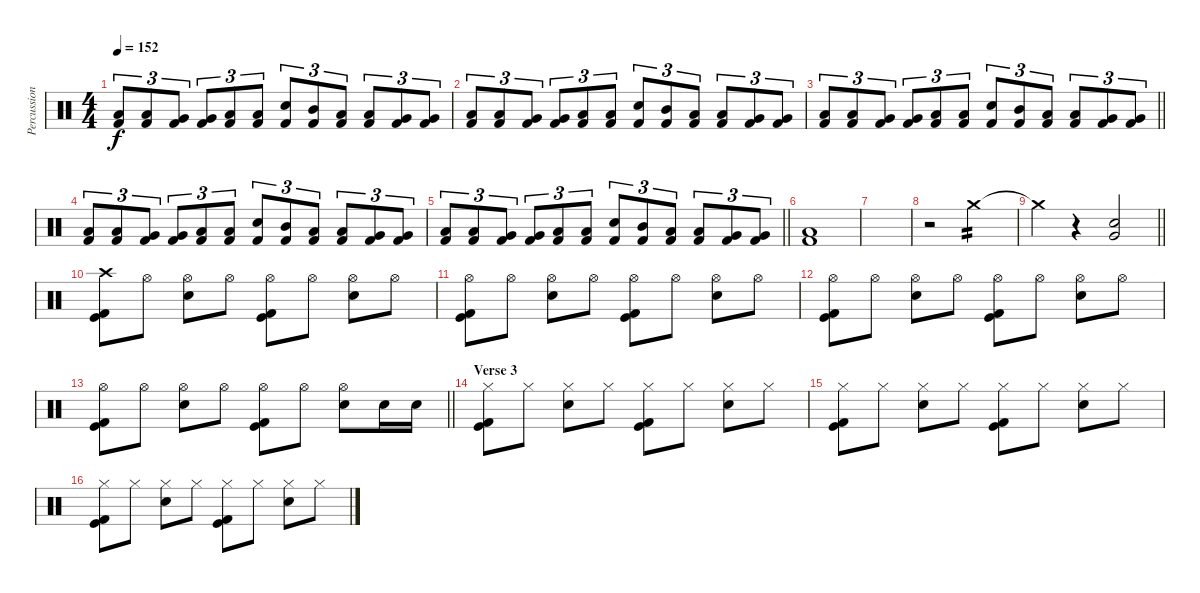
\track ("Percussion" "Percussion") {instrument percussion}
\staff {score}
\articulation defaults
\ts (4 4)
\tempo 152
\clef neutral
\ks c
("Kick (hit) 2" "Low Tom (hit)").8{tu (3 2) dy f} ("Kick (hit) 2" "Low Tom (hit)").8{tu (3 2)} ("Kick (hit) 2" "Very Low Tom (hit)").8{tu (3 2)} ("Kick (hit) 2" "Very Low Tom (hit)").8{tu (3 2)} ("Kick (hit) 2" "Low Floor Tom (hit)").8{tu (3 2)} ("Kick (hit) 2" "Low Floor Tom (hit)").8{tu (3 2)} ("Electric Snare (hit)" "Kick (hit) 2").8{tu (3 2)} ("Kick (hit) 2" "Mid Tom (hit)").8{tu (3 2)} ("Kick (hit) 2" "Low Tom (hit)").8{tu (3 2)} ("Kick (hit) 2" "Low Tom (hit)").8{tu (3 2)} ("Kick (hit) 2" "Very Low Tom (hit)").8{tu (3 2)} ("Kick (hit) 2" "Very Low Tom (hit)").8{tu (3 2)} |
("Kick (hit) 2" "Low Tom (hit)").8{tu (3 2)} ("Kick (hit) 2" "Low Tom (hit)").8{tu (3 2)} ("Kick (hit) 2" "Very Low Tom (hit)").8{tu (3 2)} ("Kick (hit) 2" "Very Low Tom (hit)").8{tu (3 2)} ("Kick (hit) 2" "Low Floor Tom (hit)").8{tu (3 2)} ("Kick (hit) 2" "Low Floor Tom (hit)").8{tu (3 2)} ("Electric Snare (hit)" "Kick (hit) 2").8{tu (3 2)} ("Kick (hit) 2" "Mid Tom (hit)").8{tu (3 2)} ("Kick (hit) 2" "Low Tom (hit)").8{tu (3 2)} ("Kick (hit) 2" "Low Tom (hit)").8{tu (3 2)} ("Kick (hit) 2" "Very Low Tom (hit)").8{tu (3 2)} ("Kick (hit) 2" "Very Low Tom (hit)").8{tu (3 2)} |
\barLineRight lightlight
("Kick (hit) 2" "Low Tom (hit)").8{tu (3 2)} ("Kick (hit) 2" "Low Tom (hit)").8{tu (3 2)} ("Kick (hit) 2" "Very Low Tom (hit)").8{tu (3 2)} ("Kick (hit) 2" "Very Low Tom (hit)").8{tu (3 2)} ("Kick (hit) 2" "Low Floor Tom (hit)").8{tu (3 2)} ("Kick (hit) 2" "Low Floor Tom (hit)").8{tu (3 2)} ("Electric Snare (hit)" "Kick (hit) 2").8{tu (3 2)} ("Kick (hit) 2" "Mid Tom (hit)").8{tu (3 2)} ("Kick (hit) 2" "Low Tom (hit)").8{tu (3 2)} ("Kick (hit) 2" "Low Tom (hit)").8{tu (3 2)} ("Kick (hit) 2" "Very Low Tom (hit)").8{tu (3 2)} ("Kick (hit) 2" "Very Low Tom (hit)").8{tu (3 2)} |
\section ("" "")
("Kick (hit) 2" "Low Tom (hit)").8{tu (3 2)} ("Kick (hit) 2" "Low Tom (hit)").8{tu (3 2)} ("Kick (hit) 2" "Very Low Tom (hit)").8{tu (3 2)} ("Kick (hit) 2" "Very Low Tom (hit)").8{tu (3 2)} ("Kick (hit) 2" "Low Floor Tom (hit)").8{tu (3 2)} ("Kick (hit) 2" "Low Floor Tom (hit)").8{tu (3 2)} ("Electric Snare (hit)" "Kick (hit) 2").8{tu (3 2)} ("Kick (hit) 2" "Mid Tom (hit)").8{tu (3 2)} ("Kick (hit) 2" "Low Tom (hit)").8{tu (3 2)} ("Kick (hit) 2" "Low Tom (hit)").8{tu (3 2)} ("Kick (hit) 2" "Very Low Tom (hit)").8{tu (3 2)} ("Kick (hit) 2" "Very Low Tom (hit)").8{tu (3 2)} |
\barLineRight lightlight
("Kick (hit) 2" "Low Tom (hit)").8{tu (3 2)} ("Kick (hit) 2" "Low Tom (hit)").8{tu (3 2)} ("Kick (hit) 2" "Very Low Tom (hit)").8{tu (3 2)} ("Kick (hit) 2" "Very Low Tom (hit)").8{tu (3 2)} ("Kick (hit) 2" "Low Floor Tom (hit)").8{tu (3 2)} ("Kick (hit) 2" "Low Floor Tom (hit)").8{tu (3 2)} ("Electric Snare (hit)" "Kick (hit) 2").8{tu (3 2)} ("Kick (hit) 2" "Mid Tom (hit)").8{tu (3 2)} ("Kick (hit) 2" "Low Tom (hit)").8{tu (3 2)} ("Kick (hit) 2" "Low Tom (hit)").8{tu (3 2)} ("Kick (hit) 2" "Very Low Tom (hit)").8{tu (3 2)} ("Kick (hit) 2" "Very Low Tom (hit)").8{tu (3 2)} |
\section ("" "")
("Kick (hit) 2" "Low Floor Tom (hit)").1 |
|
r.2{volume 0} "Crash medium (hit)".2{tp 2 volume 16} |
\barLineRight lightlight "Crash medium (hit)"{t}.4
r.4 ("Electric Snare (hit)" "Very Low Tom (hit)").2 |
\section ("" "")
("Crash high (hit)" "Kick (hit)" "Kick (hit) 2").8 "Hi-Hat (open)".8 ("Hi-Hat (open)" "Electric Snare (hit)").8 "Hi-Hat (open)".8 ("Hi-Hat (open)" "Kick (hit)" "Kick (hit) 2").8 "Hi-Hat (open)".8 ("Hi-Hat (open)" "Electric Snare (hit)").8 "Hi-Hat (open)".8 |
("Hi-Hat (open)" "Kick (hit)" "Kick (hit) 2").8 "Hi-Hat (open)".8 ("Hi-Hat (open)" "Electric Snare (hit)").8 "Hi-Hat (open)".8 ("Hi-Hat (open)" "Kick (hit)" "Kick (hit) 2").8 "Hi-Hat (open)".8 ("Hi-Hat (open)" "Electric Snare (hit)").8 "Hi-Hat (open)".8 |
("Hi-Hat (open)" "Kick (hit)" "Kick (hit) 2").8 "Hi-Hat (open)".8 ("Hi-Hat (open)" "Electric Snare (hit)").8 "Hi-Hat (open)".8 ("Hi-Hat (open)" "Kick (hit)" "Kick (hit) 2").8 "Hi-Hat (open)".8 ("Hi-Hat (open)" "Electric Snare (hit)").8 "Hi-Hat (open)".8 |
\barLineRight lightlight
("Hi-Hat (open)" "Kick (hit)" "Kick (hit) 2").8 "Hi-Hat (open)".8 ("Hi-Hat (open)" "Electric Snare (hit)").8 "Hi-Hat (open)".8 ("Hi-Hat (open)" "Kick (hit)" "Kick (hit) 2").8 "Hi-Hat (open)".8 ("Hi-Hat (open)" "Electric Snare (hit)").8 "Electric Snare (hit)".16 "Electric Snare (hit)".16 |
\section ("" "Verse 3")
("Hi-Hat (closed)" "Kick (hit)" "Kick (hit) 2").8 "Hi-Hat (closed)".8 ("Hi-Hat (closed)" "Electric Snare (hit)").8 "Hi-Hat (closed)".8 ("Hi-Hat (closed)" "Kick (hit)" "Kick (hit) 2").8 "Hi-Hat (closed)".8 ("Hi-Hat (closed)" "Electric Snare (hit)").8 "Hi-Hat (closed)".8 |
("Hi-Hat (closed)" "Kick (hit)" "Kick (hit) 2").8 "Hi-Hat (closed)".8 ("Hi-Hat (closed)" "Electric Snare (hit)").8 "Hi-Hat (closed)".8 ("Hi-Hat (closed)" "Kick (hit)" "Kick (hit) 2").8 "Hi-Hat (closed)".8 ("Hi-Hat (closed)" "Electric Snare (hit)").8 "Hi-Hat (closed)".8 |
("Hi-Hat (closed)" "Kick (hit)" "Kick (hit) 2").8 "Hi-Hat (closed)".8 ("Hi-Hat (closed)" "Electric Snare (hit)").8 "Hi-Hat (closed)".8 ("Hi-Hat (closed)" "Kick (hit)" "Kick (hit) 2").8 "Hi-Hat (closed)".8 ("Hi-Hat (closed)" "Electric Snare (hit)").8 "Hi-Hat (closed)".8
